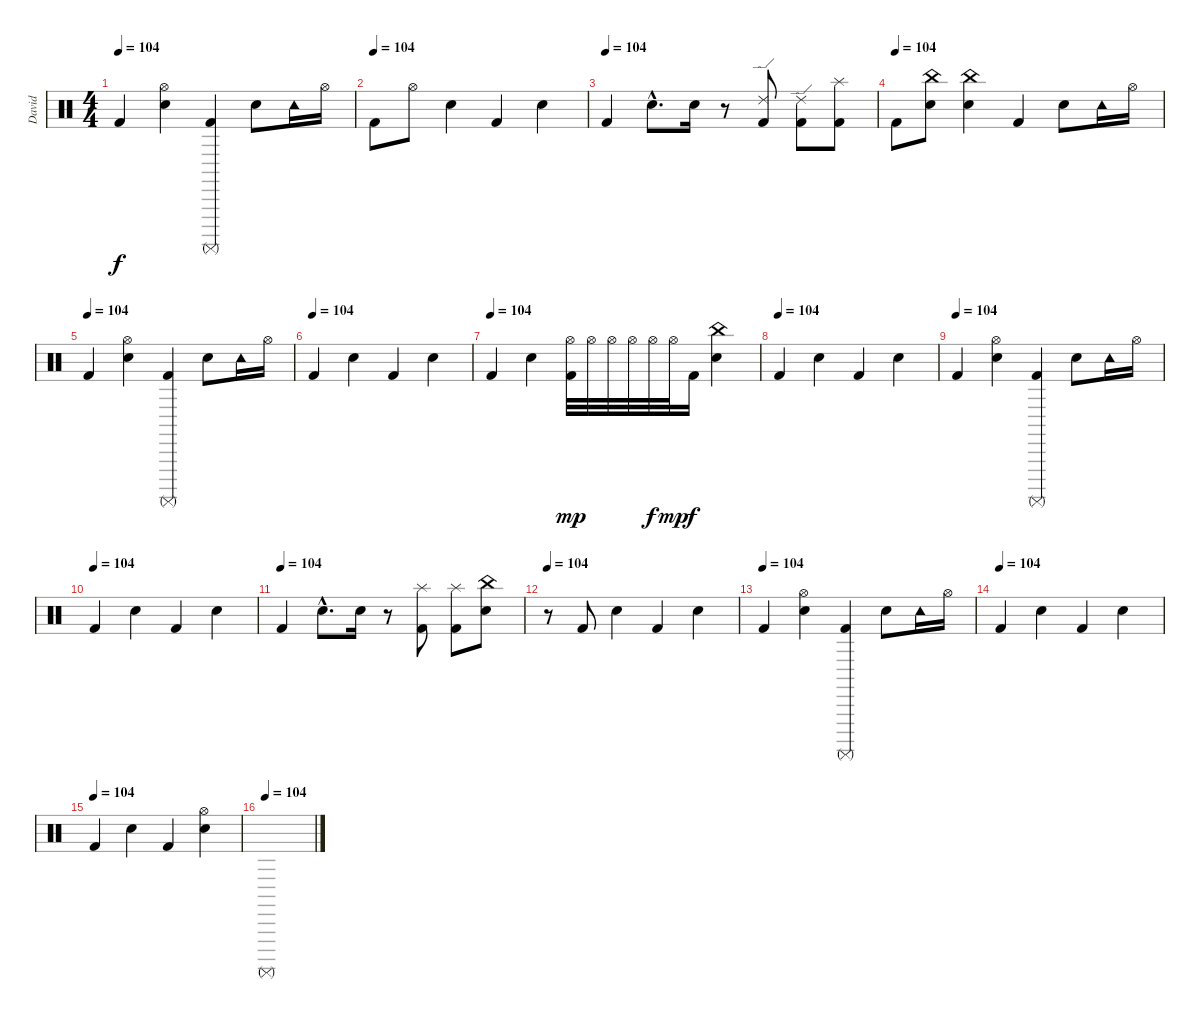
\track ("David" "David") {instrument percussion}
\staff {score}
\articulation defaults
\ts (4 4)
\tempo 104
\clef neutral
\ks c "Kick (hit) 2".4{dy f}
("Hi-Hat (open)" "Snare (hit) 2").4 ("Surdo (mute)" "Kick (hit) 2").4 "Snare (hit) 2".8 "Tambourine (hit)".16 "Hi-Hat (open)".16 |
\tempo (104)
"Kick (hit) 2".8 "Hi-Hat (open)".8 "Snare (hit) 2".4 "Kick (hit) 2".4 "Snare (hit) 2".4 |
\tempo (104)
"Kick (hit) 2".4 "Snare (hit) 2"{hac}.8{d} "Snare (hit) 2".16 r.8 ("Ride (edge) 2" "Kick (hit) 2").8 ("Ride (edge) 2" "Kick (hit) 2").8 ("Splash (hit)" "Kick (hit) 2").8 |
\tempo (104)
"Kick (hit) 2".8 ("China (hit)" "Snare (hit) 2").8 ("China (hit)" "Snare (hit) 2").4 "Kick (hit) 2".4 "Snare (hit) 2".8 "Tambourine (hit)".16 "Hi-Hat (open)".16 |
\tempo (104)
"Kick (hit) 2".4 ("Hi-Hat (open)" "Snare (hit) 2").4 ("Surdo (mute)" "Kick (hit) 2").4 "Snare (hit) 2".8 "Tambourine (hit)".16 "Hi-Hat (open)".16 |
\tempo (104)
"Kick (hit) 2".4 "Snare (hit) 2".4 "Kick (hit) 2".4 "Snare (hit) 2".4 |
\tempo (104)
"Kick (hit) 2".4 "Snare (hit) 2".4 ("Hi-Hat (open)" "Kick (hit) 2").32{dy mp} "Hi-Hat (open)".32 "Hi-Hat (open)".32 "Hi-Hat (open)".32 "Hi-Hat (open)".32{dy f} "Hi-Hat (open)".32{dy mp} "Kick (hit) 2".16{dy f} ("China (hit)" "Snare (hit) 2").4 |
\tempo (104)
"Kick (hit) 2".4 "Snare (hit) 2".4 "Kick (hit) 2".4 "Snare (hit) 2".4 |
\tempo (104)
"Kick (hit) 2".4 ("Hi-Hat (open)" "Snare (hit) 2").4 ("Surdo (mute)" "Kick (hit) 2").4 "Snare (hit) 2".8 "Tambourine (hit)".16 "Hi-Hat (open)".16 |
\tempo (104)
"Kick (hit) 2".4 "Snare (hit) 2".4 "Kick (hit) 2".4 "Snare (hit) 2".4 |
\tempo (104)
"Kick (hit) 2".4 "Snare (hit) 2"{hac}.8{d} "Snare (hit) 2".16 r.8 ("Splash (hit)" "Kick (hit) 2").8 ("Splash (hit)" "Kick (hit) 2").8 ("China (hit)" "Snare (hit) 2").8 |
\tempo 104
r.8 "Kick (hit) 2".8 "Snare (hit) 2".4 "Kick (hit) 2".4 "Snare (hit) 2".4 |
\tempo (104)
"Kick (hit) 2".4 ("Hi-Hat (open)" "Snare (hit) 2").4 ("Surdo (mute)" "Kick (hit) 2").4 "Snare (hit) 2".8 "Tambourine (hit)".16 "Hi-Hat (open)".16 |
\tempo (104)
"Kick (hit) 2".4 "Snare (hit) 2".4 "Kick (hit) 2".4 "Snare (hit) 2".4 |
\tempo (104)
"Kick (hit) 2".4 "Snare (hit) 2".4 "Kick (hit) 2".4 ("Hi-Hat (open)" "Snare (hit) 2").4 |
\tempo (104)
"Surdo (mute)".1
